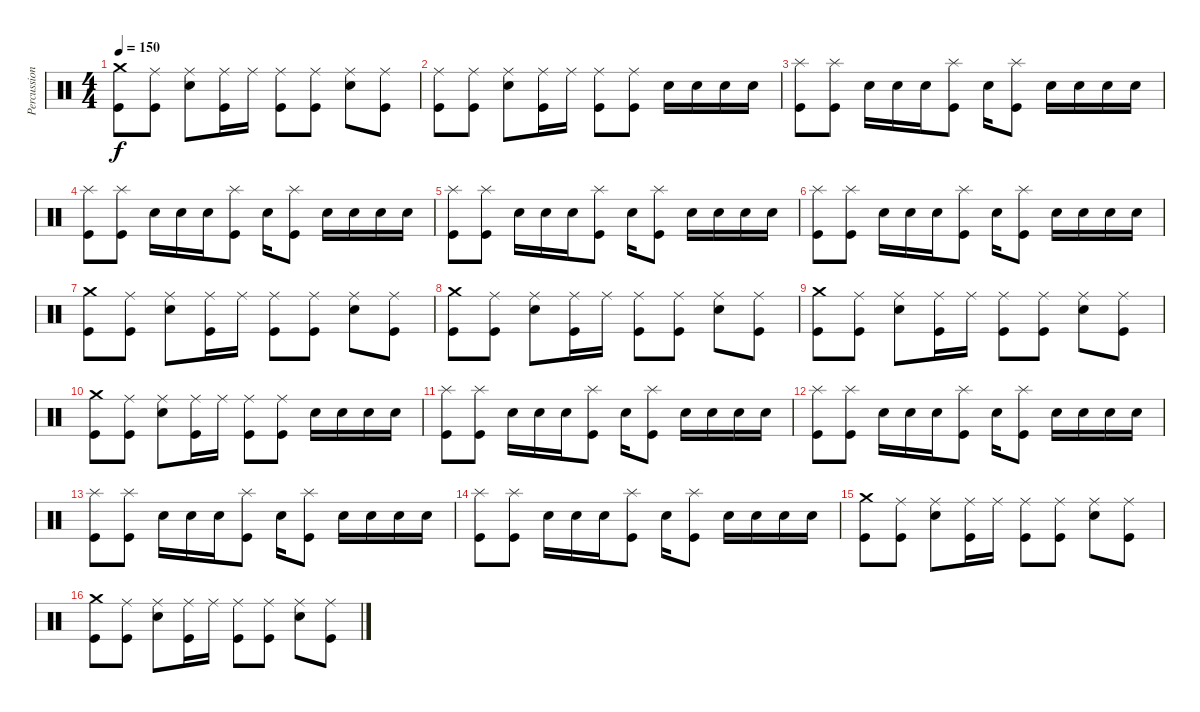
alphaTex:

\track ("Percussion" "Percussion") {instrument percussion}
\staff {score}
\articulation defaults
\ts (4 4)
\tempo 150
\clef neutral
\ks c
("Crash medium (hit)" "Kick (hit)").8{dy f} ("Ride (middle)" "Kick (hit)").8 ("Ride (middle)" "Snare (hit) 2").8 ("Ride (middle)" "Kick (hit)").16 "Ride (middle)".16 ("Ride (middle)" "Kick (hit)").8 ("Ride (middle)" "Kick (hit)").8 ("Ride (middle)" "Snare (hit) 2").8 ("Ride (middle)" "Kick (hit)").8 |
("Ride (middle)" "Kick (hit)").8 ("Ride (middle)" "Kick (hit)").8 ("Ride (middle)" "Snare (hit) 2").8 ("Ride (middle)" "Kick (hit)").16 "Ride (middle)".16 ("Ride (middle)" "Kick (hit)").8 ("Ride (middle)" "Kick (hit)").8 "Snare (hit) 2".16 "Snare (hit) 2".16 "Snare (hit) 2".16 "Snare (hit) 2".16 |
("Splash (hit)" "Kick (hit)").8 ("Splash (hit)" "Kick (hit)").8 "Snare (hit) 2".16 "Snare (hit) 2".16 "Snare (hit) 2".16 ("Splash (hit)" "Kick (hit)").8 "Snare (hit) 2".16 ("Splash (hit)" "Kick (hit)").8 "Snare (hit) 2".16 "Snare (hit) 2".16 "Snare (hit) 2".16 "Snare (hit) 2".16 |
("Splash (hit)" "Kick (hit)").8 ("Splash (hit)" "Kick (hit)").8 "Snare (hit) 2".16 "Snare (hit) 2".16 "Snare (hit) 2".16 ("Splash (hit)" "Kick (hit)").8 "Snare (hit) 2".16 ("Splash (hit)" "Kick (hit)").8 "Snare (hit) 2".16 "Snare (hit) 2".16 "Snare (hit) 2".16 "Snare (hit) 2".16 |
("Splash (hit)" "Kick (hit)").8 ("Splash (hit)" "Kick (hit)").8 "Snare (hit) 2".16 "Snare (hit) 2".16 "Snare (hit) 2".16 ("Splash (hit)" "Kick (hit)").8 "Snare (hit) 2".16 ("Splash (hit)" "Kick (hit)").8 "Snare (hit) 2".16 "Snare (hit) 2".16 "Snare (hit) 2".16 "Snare (hit) 2".16 |
("Splash (hit)" "Kick (hit)").8 ("Splash (hit)" "Kick (hit)").8 "Snare (hit) 2".16 "Snare (hit) 2".16 "Snare (hit) 2".16 ("Splash (hit)" "Kick (hit)").8 "Snare (hit) 2".16 ("Splash (hit)" "Kick (hit)").8 "Snare (hit) 2".16 "Snare (hit) 2".16 "Snare (hit) 2".16 "Snare (hit) 2".16 |
("Crash medium (hit)" "Kick (hit)").8 ("Ride (middle)" "Kick (hit)").8 ("Ride (middle)" "Snare (hit) 2").8 ("Ride (middle)" "Kick (hit)").16 "Ride (middle)".16 ("Ride (middle)" "Kick (hit)").8 ("Ride (middle)" "Kick (hit)").8 ("Ride (middle)" "Snare (hit) 2").8 ("Ride (middle)" "Kick (hit)").8 |
("Crash medium (hit)" "Kick (hit)").8 ("Ride (middle)" "Kick (hit)").8 ("Ride (middle)" "Snare (hit) 2").8 ("Ride (middle)" "Kick (hit)").16 "Ride (middle)".16 ("Ride (middle)" "Kick (hit)").8 ("Ride (middle)" "Kick (hit)").8 ("Ride (middle)" "Snare (hit) 2").8 ("Ride (middle)" "Kick (hit)").8 |
("Crash medium (hit)" "Kick (hit)").8 ("Ride (middle)" "Kick (hit)").8 ("Ride (middle)" "Snare (hit) 2").8 ("Ride (middle)" "Kick (hit)").16 "Ride (middle)".16 ("Ride (middle)" "Kick (hit)").8 ("Ride (middle)" "Kick (hit)").8 ("Ride (middle)" "Snare (hit) 2").8 ("Ride (middle)" "Kick (hit)").8 |
("Crash medium (hit)" "Kick (hit)").8 ("Ride (middle)" "Kick (hit)").8 ("Ride (middle)" "Snare (hit) 2").8 ("Ride (middle)" "Kick (hit)").16 "Ride (middle)".16 ("Ride (middle)" "Kick (hit)").8 ("Ride (middle)" "Kick (hit)").8 "Snare (hit) 2".16 "Snare (hit) 2".16 "Snare (hit) 2".16 "Snare (hit) 2".16 |
("Splash (hit)" "Kick (hit)").8 ("Splash (hit)" "Kick (hit)").8 "Snare (hit) 2".16 "Snare (hit) 2".16 "Snare (hit) 2".16 ("Splash (hit)" "Kick (hit)").8 "Snare (hit) 2".16 ("Splash (hit)" "Kick (hit)").8 "Snare (hit) 2".16 "Snare (hit) 2".16 "Snare (hit) 2".16 "Snare (hit) 2".16 |
("Splash (hit)" "Kick (hit)").8 ("Splash (hit)" "Kick (hit)").8 "Snare (hit) 2".16 "Snare (hit) 2".16 "Snare (hit) 2".16 ("Splash (hit)" "Kick (hit)").8 "Snare (hit) 2".16 ("Splash (hit)" "Kick (hit)").8 "Snare (hit) 2".16 "Snare (hit) 2".16 "Snare (hit) 2".16 "Snare (hit) 2".16 |
("Splash (hit)" "Kick (hit)").8 ("Splash (hit)" "Kick (hit)").8 "Snare (hit) 2".16 "Snare (hit) 2".16 "Snare (hit) 2".16 ("Splash (hit)" "Kick (hit)").8 "Snare (hit) 2".16 ("Splash (hit)" "Kick (hit)").8 "Snare (hit) 2".16 "Snare (hit) 2".16 "Snare (hit) 2".16 "Snare (hit) 2".16 |
("Splash (hit)" "Kick (hit)").8 ("Splash (hit)" "Kick (hit)").8 "Snare (hit) 2".16 "Snare (hit) 2".16 "Snare (hit) 2".16 ("Splash (hit)" "Kick (hit)").8 "Snare (hit) 2".16 ("Splash (hit)" "Kick (hit)").8 "Snare (hit) 2".16 "Snare (hit) 2".16 "Snare (hit) 2".16 "Snare (hit) 2".16 |
("Crash medium (hit)" "Kick (hit)").8 ("Ride (middle)" "Kick (hit)").8 ("Ride (middle)" "Snare (hit) 2").8 ("Ride (middle)" "Kick (hit)").16 "Ride (middle)".16 ("Ride (middle)" "Kick (hit)").8 ("Ride (middle)" "Kick (hit)").8 ("Ride (middle)" "Snare (hit) 2").8 ("Ride (middle)" "Kick (hit)").8 |
("Crash medium (hit)" "Kick (hit)").8 ("Ride (middle)" "Kick (hit)").8 ("Ride (middle)" "Snare (hit) 2").8 ("Ride (middle)" "Kick (hit)").16 "Ride (middle)".16 ("Ride (middle)" "Kick (hit)").8 ("Ride (middle)" "Kick (hit)").8 ("Ride (middle)" "Snare (hit) 2").8 ("Ride (middle)" "Kick (hit)").8
